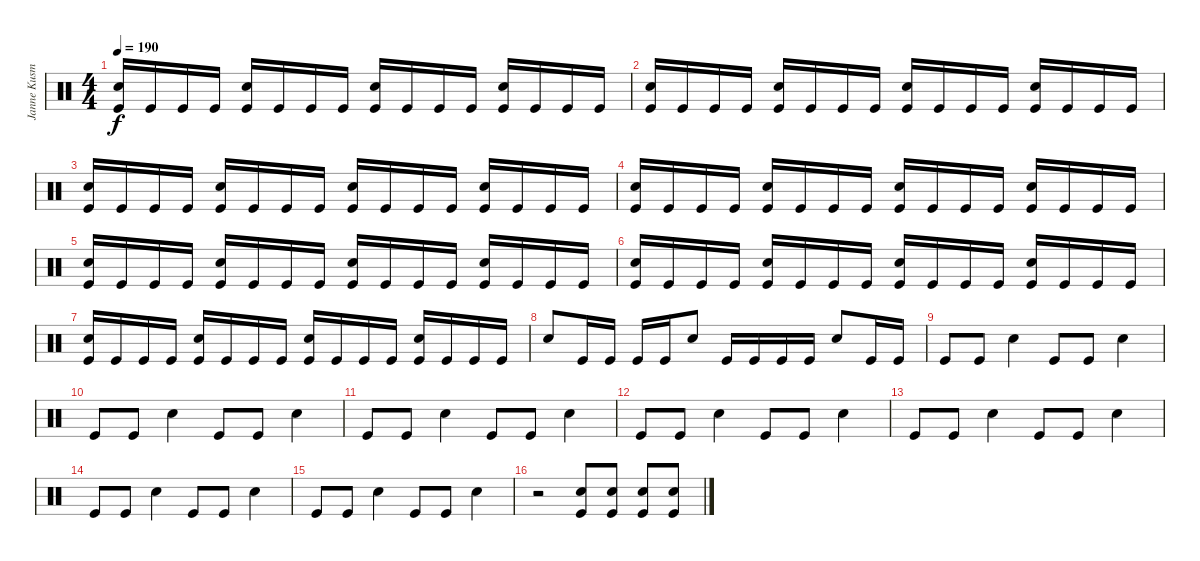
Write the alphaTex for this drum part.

\track ("Janne Kusmin" "Janne Kusm") {instrument percussion}
\staff {score}
\articulation defaults
\ts (4 4)
\tempo 190
\clef neutral
\ks c
("Electric Snare (hit)" "Kick (hit)").16{dy f} "Kick (hit)".16 "Kick (hit)".16 "Kick (hit)".16 ("Electric Snare (hit)" "Kick (hit)").16 "Kick (hit)".16 "Kick (hit)".16 "Kick (hit)".16 ("Electric Snare (hit)" "Kick (hit)").16 "Kick (hit)".16 "Kick (hit)".16 "Kick (hit)".16 ("Electric Snare (hit)" "Kick (hit)").16 "Kick (hit)".16 "Kick (hit)".16 "Kick (hit)".16 |
("Electric Snare (hit)" "Kick (hit)").16 "Kick (hit)".16 "Kick (hit)".16 "Kick (hit)".16 ("Electric Snare (hit)" "Kick (hit)").16 "Kick (hit)".16 "Kick (hit)".16 "Kick (hit)".16 ("Electric Snare (hit)" "Kick (hit)").16 "Kick (hit)".16 "Kick (hit)".16 "Kick (hit)".16 ("Electric Snare (hit)" "Kick (hit)").16 "Kick (hit)".16 "Kick (hit)".16 "Kick (hit)".16 |
("Electric Snare (hit)" "Kick (hit)").16 "Kick (hit)".16 "Kick (hit)".16 "Kick (hit)".16 ("Electric Snare (hit)" "Kick (hit)").16 "Kick (hit)".16 "Kick (hit)".16 "Kick (hit)".16 ("Electric Snare (hit)" "Kick (hit)").16 "Kick (hit)".16 "Kick (hit)".16 "Kick (hit)".16 ("Electric Snare (hit)" "Kick (hit)").16 "Kick (hit)".16 "Kick (hit)".16 "Kick (hit)".16 |
("Electric Snare (hit)" "Kick (hit)").16 "Kick (hit)".16 "Kick (hit)".16 "Kick (hit)".16 ("Electric Snare (hit)" "Kick (hit)").16 "Kick (hit)".16 "Kick (hit)".16 "Kick (hit)".16 ("Electric Snare (hit)" "Kick (hit)").16 "Kick (hit)".16 "Kick (hit)".16 "Kick (hit)".16 ("Electric Snare (hit)" "Kick (hit)").16 "Kick (hit)".16 "Kick (hit)".16 "Kick (hit)".16 |
("Electric Snare (hit)" "Kick (hit)").16 "Kick (hit)".16 "Kick (hit)".16 "Kick (hit)".16 ("Electric Snare (hit)" "Kick (hit)").16 "Kick (hit)".16 "Kick (hit)".16 "Kick (hit)".16 ("Electric Snare (hit)" "Kick (hit)").16 "Kick (hit)".16 "Kick (hit)".16 "Kick (hit)".16 ("Electric Snare (hit)" "Kick (hit)").16 "Kick (hit)".16 "Kick (hit)".16 "Kick (hit)".16 |
("Electric Snare (hit)" "Kick (hit)").16 "Kick (hit)".16 "Kick (hit)".16 "Kick (hit)".16 ("Electric Snare (hit)" "Kick (hit)").16 "Kick (hit)".16 "Kick (hit)".16 "Kick (hit)".16 ("Electric Snare (hit)" "Kick (hit)").16 "Kick (hit)".16 "Kick (hit)".16 "Kick (hit)".16 ("Electric Snare (hit)" "Kick (hit)").16 "Kick (hit)".16 "Kick (hit)".16 "Kick (hit)".16 |
("Electric Snare (hit)" "Kick (hit)").16 "Kick (hit)".16 "Kick (hit)".16 "Kick (hit)".16 ("Electric Snare (hit)" "Kick (hit)").16 "Kick (hit)".16 "Kick (hit)".16 "Kick (hit)".16 ("Electric Snare (hit)" "Kick (hit)").16 "Kick (hit)".16 "Kick (hit)".16 "Kick (hit)".16 ("Electric Snare (hit)" "Kick (hit)").16 "Kick (hit)".16 "Kick (hit)".16 "Kick (hit)".16 |
"Electric Snare (hit)".8 "Kick (hit)".16 "Kick (hit)".16 "Kick (hit)".16 "Kick (hit)".16 "Electric Snare (hit)".8 "Kick (hit)".16 "Kick (hit)".16 "Kick (hit)".16 "Kick (hit)".16 "Electric Snare (hit)".8 "Kick (hit)".16 "Kick (hit)".16 |
"Kick (hit)".8 "Kick (hit)".8 "Electric Snare (hit)".4 "Kick (hit)".8 "Kick (hit)".8 "Electric Snare (hit)".4 |
"Kick (hit)".8 "Kick (hit)".8 "Electric Snare (hit)".4 "Kick (hit)".8 "Kick (hit)".8 "Electric Snare (hit)".4 |
"Kick (hit)".8 "Kick (hit)".8 "Electric Snare (hit)".4 "Kick (hit)".8 "Kick (hit)".8 "Electric Snare (hit)".4 |
"Kick (hit)".8 "Kick (hit)".8 "Electric Snare (hit)".4 "Kick (hit)".8 "Kick (hit)".8 "Electric Snare (hit)".4 |
"Kick (hit)".8 "Kick (hit)".8 "Electric Snare (hit)".4 "Kick (hit)".8 "Kick (hit)".8 "Electric Snare (hit)".4 |
"Kick (hit)".8 "Kick (hit)".8 "Electric Snare (hit)".4 "Kick (hit)".8 "Kick (hit)".8 "Electric Snare (hit)".4 |
"Kick (hit)".8 "Kick (hit)".8 "Electric Snare (hit)".4 "Kick (hit)".8 "Kick (hit)".8 "Electric Snare (hit)".4 |
r.2 ("Electric Snare (hit)" "Kick (hit)").8 ("Electric Snare (hit)" "Kick (hit)").8 ("Electric Snare (hit)" "Kick (hit)").8 ("Electric Snare (hit)" "Kick (hit)").8
